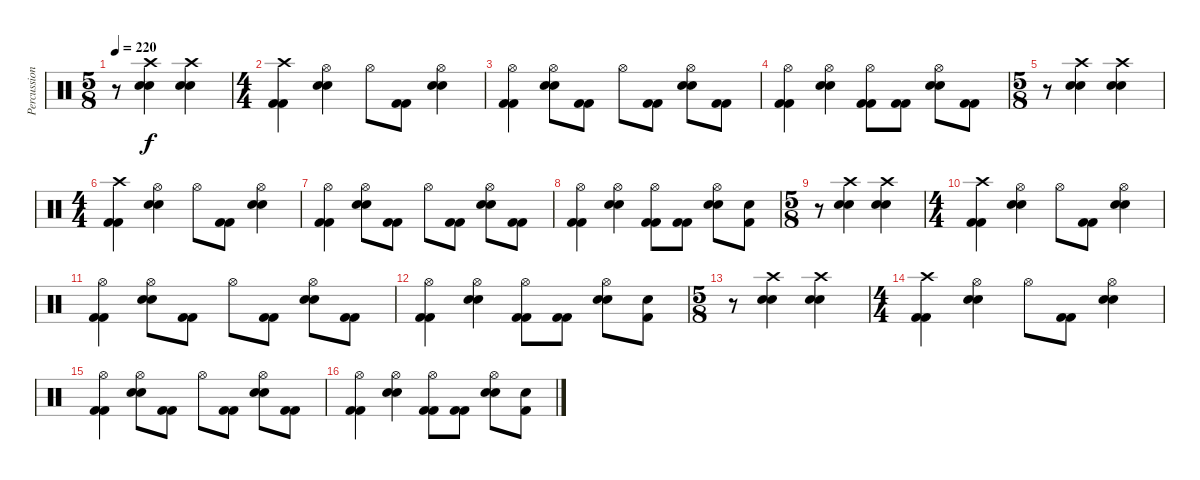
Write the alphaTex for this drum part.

\track ("Percussion" "Percussion") {instrument percussion}
\staff {score}
\articulation defaults
\ts (5 8)
\tempo 220
\clef neutral
\ks c
r.8{dy f} ("Crash high (hit)" "Electric Snare (hit)" "Electric Snare (hit)").4 ("Crash high (hit)" "Electric Snare (hit)" "Electric Snare (hit)").4 |
\ts (4 4)
("Crash high (hit)" "Kick (hit) 2" "Kick (hit) 2").4 ("Hi-Hat (open)" "Electric Snare (hit)" "Electric Snare (hit)").4 "Hi-Hat (open)".8 ("Kick (hit) 2" "Kick (hit) 2").8 ("Hi-Hat (open)" "Electric Snare (hit)" "Electric Snare (hit)").4 |
("Hi-Hat (open)" "Kick (hit) 2" "Kick (hit) 2").4 ("Hi-Hat (open)" "Electric Snare (hit)" "Electric Snare (hit)").8 ("Kick (hit) 2" "Kick (hit) 2").8 "Hi-Hat (open)".8 ("Kick (hit) 2" "Kick (hit) 2").8 ("Hi-Hat (open)" "Electric Snare (hit)" "Electric Snare (hit)").8 ("Kick (hit) 2" "Kick (hit) 2").8 |
("Hi-Hat (open)" "Kick (hit) 2" "Kick (hit) 2").4 ("Hi-Hat (open)" "Electric Snare (hit)" "Electric Snare (hit)").4 ("Hi-Hat (open)" "Kick (hit) 2" "Kick (hit) 2").8 ("Kick (hit) 2" "Kick (hit) 2").8 ("Hi-Hat (open)" "Electric Snare (hit)" "Electric Snare (hit)").8 ("Kick (hit) 2" "Kick (hit) 2").8 |
\ts (5 8)
r.8 ("Crash high (hit)" "Electric Snare (hit)" "Electric Snare (hit)").4 ("Crash high (hit)" "Electric Snare (hit)" "Electric Snare (hit)").4 |
\ts (4 4)
("Crash high (hit)" "Kick (hit) 2" "Kick (hit) 2").4 ("Hi-Hat (open)" "Electric Snare (hit)" "Electric Snare (hit)").4 "Hi-Hat (open)".8 ("Kick (hit) 2" "Kick (hit) 2").8 ("Hi-Hat (open)" "Electric Snare (hit)" "Electric Snare (hit)").4 |
("Hi-Hat (open)" "Kick (hit) 2" "Kick (hit) 2").4 ("Hi-Hat (open)" "Electric Snare (hit)" "Electric Snare (hit)").8 ("Kick (hit) 2" "Kick (hit) 2").8 "Hi-Hat (open)".8 ("Kick (hit) 2" "Kick (hit) 2").8 ("Hi-Hat (open)" "Electric Snare (hit)" "Electric Snare (hit)").8 ("Kick (hit) 2" "Kick (hit) 2").8 |
("Hi-Hat (open)" "Kick (hit) 2" "Kick (hit) 2").4 ("Hi-Hat (open)" "Electric Snare (hit)" "Electric Snare (hit)").4 ("Hi-Hat (open)" "Kick (hit) 2" "Kick (hit) 2").8 ("Kick (hit) 2" "Kick (hit) 2").8 ("Hi-Hat (open)" "Electric Snare (hit)" "Electric Snare (hit)").8 ("Kick (hit) 2" "Snare (hit)").8 |
\ts (5 8)
r.8 ("Crash high (hit)" "Electric Snare (hit)" "Electric Snare (hit)").4 ("Crash high (hit)" "Electric Snare (hit)" "Electric Snare (hit)").4 |
\ts (4 4)
("Crash high (hit)" "Kick (hit) 2" "Kick (hit) 2").4 ("Hi-Hat (open)" "Electric Snare (hit)" "Electric Snare (hit)").4 "Hi-Hat (open)".8 ("Kick (hit) 2" "Kick (hit) 2").8 ("Hi-Hat (open)" "Electric Snare (hit)" "Electric Snare (hit)").4 |
("Hi-Hat (open)" "Kick (hit) 2" "Kick (hit) 2").4 ("Hi-Hat (open)" "Electric Snare (hit)" "Electric Snare (hit)").8 ("Kick (hit) 2" "Kick (hit) 2").8 "Hi-Hat (open)".8 ("Kick (hit) 2" "Kick (hit) 2").8 ("Hi-Hat (open)" "Electric Snare (hit)" "Electric Snare (hit)").8 ("Kick (hit) 2" "Kick (hit) 2").8 |
("Hi-Hat (open)" "Kick (hit) 2" "Kick (hit) 2").4 ("Hi-Hat (open)" "Electric Snare (hit)" "Electric Snare (hit)").4 ("Hi-Hat (open)" "Kick (hit) 2" "Kick (hit) 2").8 ("Kick (hit) 2" "Kick (hit) 2").8 ("Hi-Hat (open)" "Electric Snare (hit)" "Electric Snare (hit)").8 ("Kick (hit) 2" "Snare (hit)").8 |
\ts (5 8)
r.8 ("Crash high (hit)" "Electric Snare (hit)" "Electric Snare (hit)").4 ("Crash high (hit)" "Electric Snare (hit)" "Electric Snare (hit)").4 |
\ts (4 4)
("Crash high (hit)" "Kick (hit) 2" "Kick (hit) 2").4 ("Hi-Hat (open)" "Electric Snare (hit)" "Electric Snare (hit)").4 "Hi-Hat (open)".8 ("Kick (hit) 2" "Kick (hit) 2").8 ("Hi-Hat (open)" "Electric Snare (hit)" "Electric Snare (hit)").4 |
("Hi-Hat (open)" "Kick (hit) 2" "Kick (hit) 2").4 ("Hi-Hat (open)" "Electric Snare (hit)" "Electric Snare (hit)").8 ("Kick (hit) 2" "Kick (hit) 2").8 "Hi-Hat (open)".8 ("Kick (hit) 2" "Kick (hit) 2").8 ("Hi-Hat (open)" "Electric Snare (hit)" "Electric Snare (hit)").8 ("Kick (hit) 2" "Kick (hit) 2").8 |
("Hi-Hat (open)" "Kick (hit) 2" "Kick (hit) 2").4 ("Hi-Hat (open)" "Electric Snare (hit)" "Electric Snare (hit)").4 ("Hi-Hat (open)" "Kick (hit) 2" "Kick (hit) 2").8 ("Kick (hit) 2" "Kick (hit) 2").8 ("Hi-Hat (open)" "Electric Snare (hit)" "Electric Snare (hit)").8 ("Kick (hit) 2" "Snare (hit)").8
